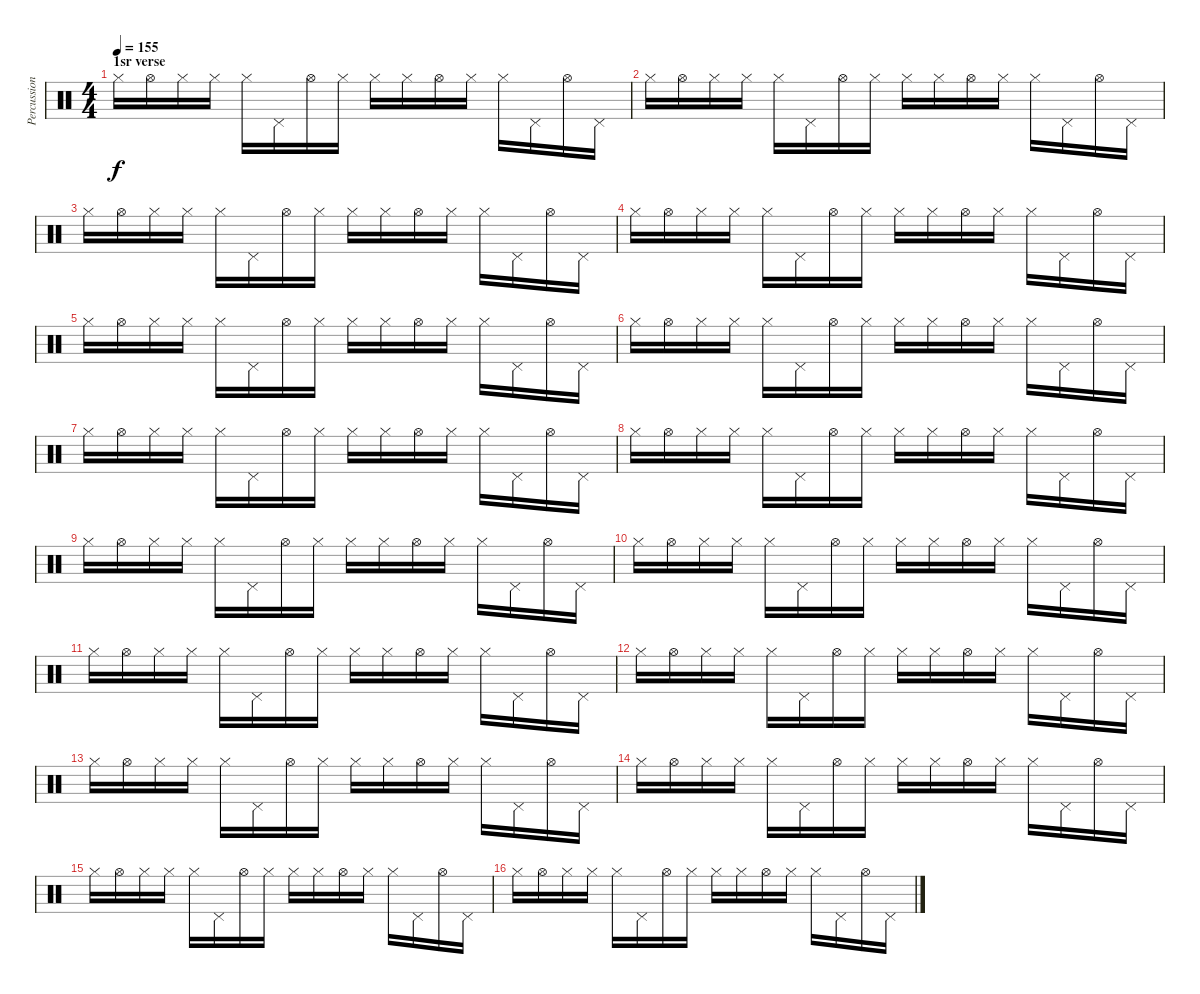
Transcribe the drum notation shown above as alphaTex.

\track ("Percussion" "Percussion") {instrument percussion}
\staff {score}
\articulation defaults
\ts (4 4)
\section ("" "1sr verse")
\tempo 155
\clef neutral
\ks c "Hi-Hat (closed)".16{dy f} "Hi-Hat (open)".16 "Hi-Hat (closed)".16 "Hi-Hat (closed)".16 "Hi-Hat (closed)".16 "Pedal Hi-Hat (hit)".16 "Hi-Hat (open)".16 "Hi-Hat (closed)".16 "Hi-Hat (closed)".16 "Hi-Hat (closed)".16 "Hi-Hat (open)".16 "Hi-Hat (closed)".16 "Hi-Hat (closed)".16 "Pedal Hi-Hat (hit)".16 "Hi-Hat (open)".16 "Pedal Hi-Hat (hit)".16
|
"Hi-Hat (closed)".16 "Hi-Hat (open)".16 "Hi-Hat (closed)".16 "Hi-Hat (closed)".16 "Hi-Hat (closed)".16 "Pedal Hi-Hat (hit)".16 "Hi-Hat (open)".16 "Hi-Hat (closed)".16 "Hi-Hat (closed)".16 "Hi-Hat (closed)".16 "Hi-Hat (open)".16 "Hi-Hat (closed)".16 "Hi-Hat (closed)".16 "Pedal Hi-Hat (hit)".16 "Hi-Hat (open)".16 "Pedal Hi-Hat (hit)".16 |
"Hi-Hat (closed)".16 "Hi-Hat (open)".16 "Hi-Hat (closed)".16 "Hi-Hat (closed)".16 "Hi-Hat (closed)".16 "Pedal Hi-Hat (hit)".16 "Hi-Hat (open)".16 "Hi-Hat (closed)".16 "Hi-Hat (closed)".16 "Hi-Hat (closed)".16 "Hi-Hat (open)".16 "Hi-Hat (closed)".16 "Hi-Hat (closed)".16 "Pedal Hi-Hat (hit)".16 "Hi-Hat (open)".16 "Pedal Hi-Hat (hit)".16 |
"Hi-Hat (closed)".16 "Hi-Hat (open)".16 "Hi-Hat (closed)".16 "Hi-Hat (closed)".16 "Hi-Hat (closed)".16 "Pedal Hi-Hat (hit)".16 "Hi-Hat (open)".16 "Hi-Hat (closed)".16 "Hi-Hat (closed)".16 "Hi-Hat (closed)".16 "Hi-Hat (open)".16 "Hi-Hat (closed)".16 "Hi-Hat (closed)".16 "Pedal Hi-Hat (hit)".16 "Hi-Hat (open)".16 "Pedal Hi-Hat (hit)".16 |
"Hi-Hat (closed)".16 "Hi-Hat (open)".16 "Hi-Hat (closed)".16 "Hi-Hat (closed)".16 "Hi-Hat (closed)".16 "Pedal Hi-Hat (hit)".16 "Hi-Hat (open)".16 "Hi-Hat (closed)".16 "Hi-Hat (closed)".16 "Hi-Hat (closed)".16 "Hi-Hat (open)".16 "Hi-Hat (closed)".16 "Hi-Hat (closed)".16 "Pedal Hi-Hat (hit)".16 "Hi-Hat (open)".16 "Pedal Hi-Hat (hit)".16 |
"Hi-Hat (closed)".16 "Hi-Hat (open)".16 "Hi-Hat (closed)".16 "Hi-Hat (closed)".16 "Hi-Hat (closed)".16 "Pedal Hi-Hat (hit)".16 "Hi-Hat (open)".16 "Hi-Hat (closed)".16 "Hi-Hat (closed)".16 "Hi-Hat (closed)".16 "Hi-Hat (open)".16 "Hi-Hat (closed)".16 "Hi-Hat (closed)".16 "Pedal Hi-Hat (hit)".16 "Hi-Hat (open)".16 "Pedal Hi-Hat (hit)".16 |
"Hi-Hat (closed)".16 "Hi-Hat (open)".16 "Hi-Hat (closed)".16 "Hi-Hat (closed)".16 "Hi-Hat (closed)".16 "Pedal Hi-Hat (hit)".16 "Hi-Hat (open)".16 "Hi-Hat (closed)".16 "Hi-Hat (closed)".16 "Hi-Hat (closed)".16 "Hi-Hat (open)".16 "Hi-Hat (closed)".16 "Hi-Hat (closed)".16 "Pedal Hi-Hat (hit)".16 "Hi-Hat (open)".16 "Pedal Hi-Hat (hit)".16 |
"Hi-Hat (closed)".16 "Hi-Hat (open)".16 "Hi-Hat (closed)".16 "Hi-Hat (closed)".16 "Hi-Hat (closed)".16 "Pedal Hi-Hat (hit)".16 "Hi-Hat (open)".16 "Hi-Hat (closed)".16 "Hi-Hat (closed)".16 "Hi-Hat (closed)".16 "Hi-Hat (open)".16 "Hi-Hat (closed)".16 "Hi-Hat (closed)".16 "Pedal Hi-Hat (hit)".16 "Hi-Hat (open)".16 "Pedal Hi-Hat (hit)".16 |
"Hi-Hat (closed)".16 "Hi-Hat (open)".16 "Hi-Hat (closed)".16 "Hi-Hat (closed)".16 "Hi-Hat (closed)".16 "Pedal Hi-Hat (hit)".16 "Hi-Hat (open)".16 "Hi-Hat (closed)".16 "Hi-Hat (closed)".16 "Hi-Hat (closed)".16 "Hi-Hat (open)".16 "Hi-Hat (closed)".16 "Hi-Hat (closed)".16 "Pedal Hi-Hat (hit)".16 "Hi-Hat (open)".16 "Pedal Hi-Hat (hit)".16 |
"Hi-Hat (closed)".16 "Hi-Hat (open)".16 "Hi-Hat (closed)".16 "Hi-Hat (closed)".16 "Hi-Hat (closed)".16 "Pedal Hi-Hat (hit)".16 "Hi-Hat (open)".16 "Hi-Hat (closed)".16 "Hi-Hat (closed)".16 "Hi-Hat (closed)".16 "Hi-Hat (open)".16 "Hi-Hat (closed)".16 "Hi-Hat (closed)".16 "Pedal Hi-Hat (hit)".16 "Hi-Hat (open)".16 "Pedal Hi-Hat (hit)".16 |
"Hi-Hat (closed)".16 "Hi-Hat (open)".16 "Hi-Hat (closed)".16 "Hi-Hat (closed)".16 "Hi-Hat (closed)".16 "Pedal Hi-Hat (hit)".16 "Hi-Hat (open)".16 "Hi-Hat (closed)".16 "Hi-Hat (closed)".16 "Hi-Hat (closed)".16 "Hi-Hat (open)".16 "Hi-Hat (closed)".16 "Hi-Hat (closed)".16 "Pedal Hi-Hat (hit)".16 "Hi-Hat (open)".16 "Pedal Hi-Hat (hit)".16 |
"Hi-Hat (closed)".16 "Hi-Hat (open)".16 "Hi-Hat (closed)".16 "Hi-Hat (closed)".16 "Hi-Hat (closed)".16 "Pedal Hi-Hat (hit)".16 "Hi-Hat (open)".16 "Hi-Hat (closed)".16 "Hi-Hat (closed)".16 "Hi-Hat (closed)".16 "Hi-Hat (open)".16 "Hi-Hat (closed)".16 "Hi-Hat (closed)".16 "Pedal Hi-Hat (hit)".16 "Hi-Hat (open)".16 "Pedal Hi-Hat (hit)".16 |
"Hi-Hat (closed)".16 "Hi-Hat (open)".16 "Hi-Hat (closed)".16 "Hi-Hat (closed)".16 "Hi-Hat (closed)".16 "Pedal Hi-Hat (hit)".16 "Hi-Hat (open)".16 "Hi-Hat (closed)".16 "Hi-Hat (closed)".16 "Hi-Hat (closed)".16 "Hi-Hat (open)".16 "Hi-Hat (closed)".16 "Hi-Hat (closed)".16 "Pedal Hi-Hat (hit)".16 "Hi-Hat (open)".16 "Pedal Hi-Hat (hit)".16 |
"Hi-Hat (closed)".16 "Hi-Hat (open)".16 "Hi-Hat (closed)".16 "Hi-Hat (closed)".16 "Hi-Hat (closed)".16 "Pedal Hi-Hat (hit)".16 "Hi-Hat (open)".16 "Hi-Hat (closed)".16 "Hi-Hat (closed)".16 "Hi-Hat (closed)".16 "Hi-Hat (open)".16 "Hi-Hat (closed)".16 "Hi-Hat (closed)".16 "Pedal Hi-Hat (hit)".16 "Hi-Hat (open)".16 "Pedal Hi-Hat (hit)".16 |
"Hi-Hat (closed)".16 "Hi-Hat (open)".16 "Hi-Hat (closed)".16 "Hi-Hat (closed)".16 "Hi-Hat (closed)".16 "Pedal Hi-Hat (hit)".16 "Hi-Hat (open)".16 "Hi-Hat (closed)".16 "Hi-Hat (closed)".16 "Hi-Hat (closed)".16 "Hi-Hat (open)".16 "Hi-Hat (closed)".16 "Hi-Hat (closed)".16 "Pedal Hi-Hat (hit)".16 "Hi-Hat (open)".16 "Pedal Hi-Hat (hit)".16 |
"Hi-Hat (closed)".16 "Hi-Hat (open)".16 "Hi-Hat (closed)".16 "Hi-Hat (closed)".16 "Hi-Hat (closed)".16 "Pedal Hi-Hat (hit)".16 "Hi-Hat (open)".16 "Hi-Hat (closed)".16 "Hi-Hat (closed)".16 "Hi-Hat (closed)".16 "Hi-Hat (open)".16 "Hi-Hat (closed)".16 "Hi-Hat (closed)".16 "Pedal Hi-Hat (hit)".16 "Hi-Hat (open)".16 "Pedal Hi-Hat (hit)".16
